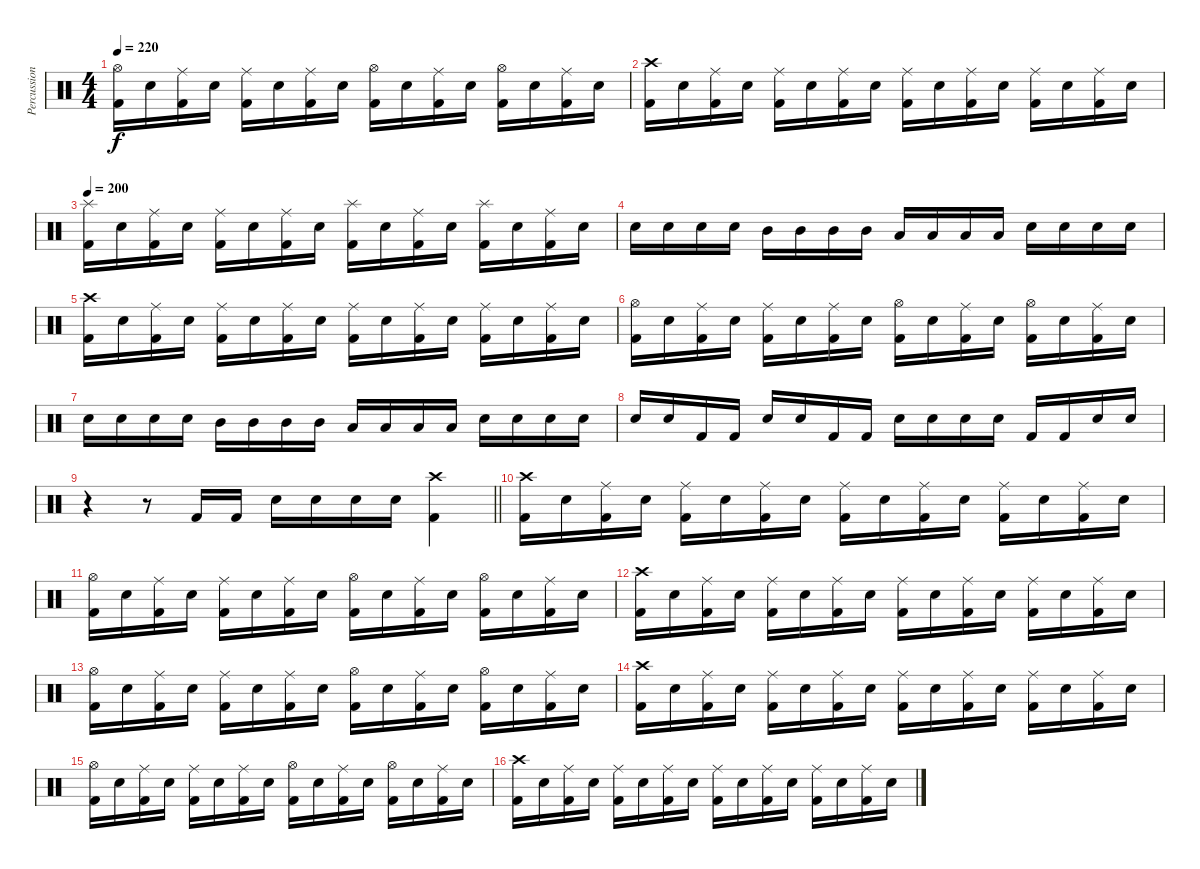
\track ("Percussion" "Percussion") {instrument percussion}
\staff {score}
\articulation defaults
\ts (4 4)
\tempo 220
\clef neutral
\ks c
("Hi-Hat (open)" "Kick (hit) 2").16{dy f} "Electric Snare (hit)".16 ("Ride (middle)" "Kick (hit) 2").16 "Electric Snare (hit)".16 ("Ride (middle)" "Kick (hit) 2").16 "Electric Snare (hit)".16 ("Ride (middle)" "Kick (hit) 2").16 "Electric Snare (hit)".16 ("Hi-Hat (open)" "Kick (hit) 2").16 "Electric Snare (hit)".16 ("Ride (middle)" "Kick (hit) 2").16 "Electric Snare (hit)".16 ("Hi-Hat (open)" "Kick (hit) 2").16 "Electric Snare (hit)".16 ("Ride (middle)" "Kick (hit) 2").16 "Electric Snare (hit)".16 |
("Crash high (hit)" "Kick (hit) 2").16 "Electric Snare (hit)".16 ("Ride (middle)" "Kick (hit) 2").16 "Electric Snare (hit)".16 ("Ride (middle)" "Kick (hit) 2").16 "Electric Snare (hit)".16 ("Ride (middle)" "Kick (hit) 2").16 "Electric Snare (hit)".16 ("Ride (middle)" "Kick (hit) 2").16 "Electric Snare (hit)".16 ("Ride (middle)" "Kick (hit) 2").16 "Electric Snare (hit)".16 ("Ride (middle)" "Kick (hit) 2").16 "Electric Snare (hit)".16 ("Ride (middle)" "Kick (hit) 2").16 "Electric Snare (hit)".16 |
\tempo 200
("Splash (hit)" "Kick (hit) 2").16 "Electric Snare (hit)".16 ("Ride (middle)" "Kick (hit) 2").16 "Electric Snare (hit)".16 ("Ride (middle)" "Kick (hit) 2").16 "Electric Snare (hit)".16 ("Ride (middle)" "Kick (hit) 2").16 "Electric Snare (hit)".16 ("Splash (hit)" "Kick (hit) 2").16 "Electric Snare (hit)".16 ("Ride (middle)" "Kick (hit) 2").16 "Electric Snare (hit)".16 ("Splash (hit)" "Kick (hit) 2").16 "Electric Snare (hit)".16 ("Ride (middle)" "Kick (hit) 2").16 "Electric Snare (hit)".16 |
"Electric Snare (hit)".16 "Electric Snare (hit)".16 "Electric Snare (hit)".16 "Electric Snare (hit)".16 "Mid Tom (hit)".16 "Mid Tom (hit)".16 "Mid Tom (hit)".16 "Mid Tom (hit)".16 "Low Tom (hit)".16 "Low Tom (hit)".16 "Low Tom (hit)".16 "Low Tom (hit)".16 "Electric Snare (hit)".16 "Electric Snare (hit)".16 "Electric Snare (hit)".16 "Electric Snare (hit)".16 |
("Crash high (hit)" "Kick (hit) 2").16 "Electric Snare (hit)".16 ("Ride (middle)" "Kick (hit) 2").16 "Electric Snare (hit)".16 ("Ride (middle)" "Kick (hit) 2").16 "Electric Snare (hit)".16 ("Ride (middle)" "Kick (hit) 2").16 "Electric Snare (hit)".16 ("Ride (middle)" "Kick (hit) 2").16 "Electric Snare (hit)".16 ("Ride (middle)" "Kick (hit) 2").16 "Electric Snare (hit)".16 ("Ride (middle)" "Kick (hit) 2").16 "Electric Snare (hit)".16 ("Ride (middle)" "Kick (hit) 2").16 "Electric Snare (hit)".16 |
("Hi-Hat (open)" "Kick (hit) 2").16 "Electric Snare (hit)".16 ("Ride (middle)" "Kick (hit) 2").16 "Electric Snare (hit)".16 ("Ride (middle)" "Kick (hit) 2").16 "Electric Snare (hit)".16 ("Ride (middle)" "Kick (hit) 2").16 "Electric Snare (hit)".16 ("Hi-Hat (open)" "Kick (hit) 2").16 "Electric Snare (hit)".16 ("Ride (middle)" "Kick (hit) 2").16 "Electric Snare (hit)".16 ("Hi-Hat (open)" "Kick (hit) 2").16 "Electric Snare (hit)".16 ("Ride (middle)" "Kick (hit) 2").16 "Electric Snare (hit)".16 |
"Electric Snare (hit)".16 "Electric Snare (hit)".16 "Electric Snare (hit)".16 "Electric Snare (hit)".16 "Mid Tom (hit)".16 "Mid Tom (hit)".16 "Mid Tom (hit)".16 "Mid Tom (hit)".16 "Low Tom (hit)".16 "Low Tom (hit)".16 "Low Tom (hit)".16 "Low Tom (hit)".16 "Electric Snare (hit)".16 "Electric Snare (hit)".16 "Electric Snare (hit)".16 "Electric Snare (hit)".16 |
"Electric Snare (hit)".16 "Electric Snare (hit)".16 "Kick (hit) 2".16 "Kick (hit) 2".16 "Electric Snare (hit)".16 "Electric Snare (hit)".16 "Kick (hit) 2".16 "Kick (hit) 2".16 "Electric Snare (hit)".16 "Electric Snare (hit)".16 "Electric Snare (hit)".16 "Electric Snare (hit)".16 "Kick (hit) 2".16 "Kick (hit) 2".16 "Electric Snare (hit)".16 "Electric Snare (hit)".16 |
\barLineRight lightlight
r.4 r.8 "Kick (hit) 2".16 "Kick (hit) 2".16 "Electric Snare (hit)".16 "Electric Snare (hit)".16 "Electric Snare (hit)".16 "Electric Snare (hit)".16 ("Crash high (hit)" "Kick (hit) 2").4 |
("Crash high (hit)" "Kick (hit) 2").16 "Electric Snare (hit)".16 ("Ride (middle)" "Kick (hit) 2").16 "Electric Snare (hit)".16 ("Ride (middle)" "Kick (hit) 2").16 "Electric Snare (hit)".16 ("Ride (middle)" "Kick (hit) 2").16 "Electric Snare (hit)".16 ("Ride (middle)" "Kick (hit) 2").16 "Electric Snare (hit)".16 ("Ride (middle)" "Kick (hit) 2").16 "Electric Snare (hit)".16 ("Ride (middle)" "Kick (hit) 2").16 "Electric Snare (hit)".16 ("Ride (middle)" "Kick (hit) 2").16 "Electric Snare (hit)".16 |
("Hi-Hat (open)" "Kick (hit) 2").16 "Electric Snare (hit)".16 ("Ride (middle)" "Kick (hit) 2").16 "Electric Snare (hit)".16 ("Ride (middle)" "Kick (hit) 2").16 "Electric Snare (hit)".16 ("Ride (middle)" "Kick (hit) 2").16 "Electric Snare (hit)".16 ("Hi-Hat (open)" "Kick (hit) 2").16 "Electric Snare (hit)".16 ("Ride (middle)" "Kick (hit) 2").16 "Electric Snare (hit)".16 ("Hi-Hat (open)" "Kick (hit) 2").16 "Electric Snare (hit)".16 ("Ride (middle)" "Kick (hit) 2").16 "Electric Snare (hit)".16 |
("Crash high (hit)" "Kick (hit) 2").16 "Electric Snare (hit)".16 ("Ride (middle)" "Kick (hit) 2").16 "Electric Snare (hit)".16 ("Ride (middle)" "Kick (hit) 2").16 "Electric Snare (hit)".16 ("Ride (middle)" "Kick (hit) 2").16 "Electric Snare (hit)".16 ("Ride (middle)" "Kick (hit) 2").16 "Electric Snare (hit)".16 ("Ride (middle)" "Kick (hit) 2").16 "Electric Snare (hit)".16 ("Ride (middle)" "Kick (hit) 2").16 "Electric Snare (hit)".16 ("Ride (middle)" "Kick (hit) 2").16 "Electric Snare (hit)".16 |
("Hi-Hat (open)" "Kick (hit) 2").16 "Electric Snare (hit)".16 ("Ride (middle)" "Kick (hit) 2").16 "Electric Snare (hit)".16 ("Ride (middle)" "Kick (hit) 2").16 "Electric Snare (hit)".16 ("Ride (middle)" "Kick (hit) 2").16 "Electric Snare (hit)".16 ("Hi-Hat (open)" "Kick (hit) 2").16 "Electric Snare (hit)".16 ("Ride (middle)" "Kick (hit) 2").16 "Electric Snare (hit)".16 ("Hi-Hat (open)" "Kick (hit) 2").16 "Electric Snare (hit)".16 ("Ride (middle)" "Kick (hit) 2").16 "Electric Snare (hit)".16 |
("Crash high (hit)" "Kick (hit) 2").16 "Electric Snare (hit)".16 ("Ride (middle)" "Kick (hit) 2").16 "Electric Snare (hit)".16 ("Ride (middle)" "Kick (hit) 2").16 "Electric Snare (hit)".16 ("Ride (middle)" "Kick (hit) 2").16 "Electric Snare (hit)".16 ("Ride (middle)" "Kick (hit) 2").16 "Electric Snare (hit)".16 ("Ride (middle)" "Kick (hit) 2").16 "Electric Snare (hit)".16 ("Ride (middle)" "Kick (hit) 2").16 "Electric Snare (hit)".16 ("Ride (middle)" "Kick (hit) 2").16 "Electric Snare (hit)".16 |
("Hi-Hat (open)" "Kick (hit) 2").16 "Electric Snare (hit)".16 ("Ride (middle)" "Kick (hit) 2").16 "Electric Snare (hit)".16 ("Ride (middle)" "Kick (hit) 2").16 "Electric Snare (hit)".16 ("Ride (middle)" "Kick (hit) 2").16 "Electric Snare (hit)".16 ("Hi-Hat (open)" "Kick (hit) 2").16 "Electric Snare (hit)".16 ("Ride (middle)" "Kick (hit) 2").16 "Electric Snare (hit)".16 ("Hi-Hat (open)" "Kick (hit) 2").16 "Electric Snare (hit)".16 ("Ride (middle)" "Kick (hit) 2").16 "Electric Snare (hit)".16 |
("Crash high (hit)" "Kick (hit) 2").16 "Electric Snare (hit)".16 ("Ride (middle)" "Kick (hit) 2").16 "Electric Snare (hit)".16 ("Ride (middle)" "Kick (hit) 2").16 "Electric Snare (hit)".16 ("Ride (middle)" "Kick (hit) 2").16 "Electric Snare (hit)".16 ("Ride (middle)" "Kick (hit) 2").16 "Electric Snare (hit)".16 ("Ride (middle)" "Kick (hit) 2").16 "Electric Snare (hit)".16 ("Ride (middle)" "Kick (hit) 2").16 "Electric Snare (hit)".16 ("Ride (middle)" "Kick (hit) 2").16 "Electric Snare (hit)".16
